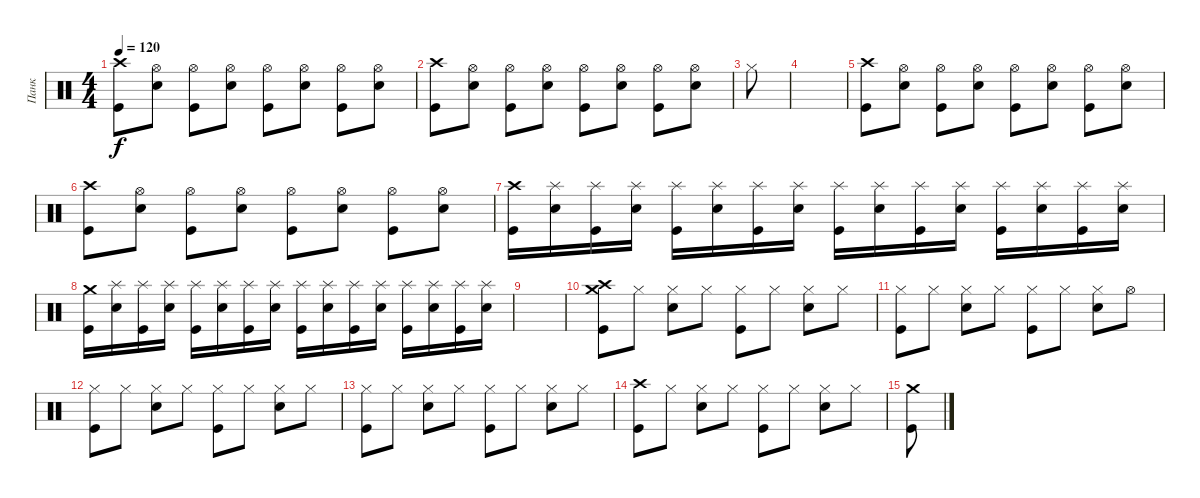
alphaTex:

\track ("Панк" "Панк") {instrument percussion}
\staff {score}
\articulation defaults
\ts (4 4)
\tempo 120
\clef neutral
\ks c
("Crash high (hit)" "Kick (hit)").8{dy f} ("Hi-Hat (open)" "Electric Snare (hit)").8 ("Hi-Hat (open)" "Kick (hit)").8 ("Hi-Hat (open)" "Electric Snare (hit)").8 ("Hi-Hat (open)" "Kick (hit)").8 ("Hi-Hat (open)" "Electric Snare (hit)").8 ("Hi-Hat (open)" "Kick (hit)").8 ("Hi-Hat (open)" "Electric Snare (hit)").8 |
("Crash high (hit)" "Kick (hit)").8 ("Hi-Hat (open)" "Electric Snare (hit)").8 ("Hi-Hat (open)" "Kick (hit)").8 ("Hi-Hat (open)" "Electric Snare (hit)").8 ("Hi-Hat (open)" "Kick (hit)").8 ("Hi-Hat (open)" "Electric Snare (hit)").8 ("Hi-Hat (open)" "Kick (hit)").8 ("Hi-Hat (open)" "Electric Snare (hit)").8 |
"Hi-Hat (closed)".8 |
|
("Crash high (hit)" "Kick (hit)").8 ("Hi-Hat (open)" "Electric Snare (hit)").8 ("Hi-Hat (open)" "Kick (hit)").8 ("Hi-Hat (open)" "Electric Snare (hit)").8 ("Hi-Hat (open)" "Kick (hit)").8 ("Hi-Hat (open)" "Electric Snare (hit)").8 ("Hi-Hat (open)" "Kick (hit)").8 ("Hi-Hat (open)" "Electric Snare (hit)").8 |
("Crash high (hit)" "Kick (hit)").8 ("Hi-Hat (open)" "Electric Snare (hit)").8 ("Hi-Hat (open)" "Kick (hit)").8 ("Hi-Hat (open)" "Electric Snare (hit)").8 ("Hi-Hat (open)" "Kick (hit)").8 ("Hi-Hat (open)" "Electric Snare (hit)").8 ("Hi-Hat (open)" "Kick (hit)").8 ("Hi-Hat (open)" "Electric Snare (hit)").8 |
("Crash high (hit)" "Kick (hit)").16 ("Splash (hit)" "Electric Snare (hit)").16 ("Splash (hit)" "Kick (hit)").16 ("Splash (hit)" "Electric Snare (hit)").16 ("Splash (hit)" "Kick (hit)").16 ("Splash (hit)" "Electric Snare (hit)").16 ("Splash (hit)" "Kick (hit)").16 ("Splash (hit)" "Electric Snare (hit)").16 ("Splash (hit)" "Kick (hit)").16 ("Splash (hit)" "Electric Snare (hit)").16 ("Splash (hit)" "Kick (hit)").16 ("Splash (hit)" "Electric Snare (hit)").16 ("Splash (hit)" "Kick (hit)").16 ("Splash (hit)" "Electric Snare (hit)").16 ("Splash (hit)" "Kick (hit)").16 ("Splash (hit)" "Electric Snare (hit)").16 |
("Crash medium (hit)" "Kick (hit)").16 ("Splash (hit)" "Electric Snare (hit)").16 ("Splash (hit)" "Kick (hit)").16 ("Splash (hit)" "Electric Snare (hit)").16 ("Splash (hit)" "Kick (hit)").16 ("Splash (hit)" "Electric Snare (hit)").16 ("Splash (hit)" "Kick (hit)").16 ("Splash (hit)" "Electric Snare (hit)").16 ("Splash (hit)" "Kick (hit)").16 ("Splash (hit)" "Electric Snare (hit)").16 ("Splash (hit)" "Kick (hit)").16 ("Splash (hit)" "Electric Snare (hit)").16 ("Splash (hit)" "Kick (hit)").16 ("Splash (hit)" "Electric Snare (hit)").16 ("Splash (hit)" "Kick (hit)").16 ("Splash (hit)" "Electric Snare (hit)").16 |
|
("Crash high (hit)" "Crash medium (hit)" "Kick (hit)").8 "Hi-Hat (closed)".8 ("Hi-Hat (closed)" "Electric Snare (hit)").8 "Hi-Hat (closed)".8 ("Hi-Hat (closed)" "Kick (hit)").8 "Hi-Hat (closed)".8 ("Hi-Hat (closed)" "Electric Snare (hit)").8 "Hi-Hat (closed)".8 |
("Hi-Hat (closed)" "Kick (hit)").8 "Hi-Hat (closed)".8 ("Hi-Hat (closed)" "Electric Snare (hit)").8 "Hi-Hat (closed)".8 ("Hi-Hat (closed)" "Kick (hit)").8 "Hi-Hat (closed)".8 ("Hi-Hat (closed)" "Electric Snare (hit)").8 "Hi-Hat (open)".8 |
("Hi-Hat (closed)" "Kick (hit)").8 "Hi-Hat (closed)".8 ("Hi-Hat (closed)" "Electric Snare (hit)").8 "Hi-Hat (closed)".8 ("Hi-Hat (closed)" "Kick (hit)").8 "Hi-Hat (closed)".8 ("Hi-Hat (closed)" "Electric Snare (hit)").8 "Hi-Hat (closed)".8 |
("Hi-Hat (closed)" "Kick (hit)").8 "Hi-Hat (closed)".8 ("Hi-Hat (closed)" "Electric Snare (hit)").8 "Hi-Hat (closed)".8 ("Hi-Hat (closed)" "Kick (hit)").8 "Hi-Hat (closed)".8 ("Hi-Hat (closed)" "Electric Snare (hit)").8 "Hi-Hat (closed)".8 |
("Crash high (hit)" "Kick (hit)").8 "Hi-Hat (closed)".8 ("Hi-Hat (closed)" "Electric Snare (hit)").8 "Hi-Hat (closed)".8 ("Hi-Hat (closed)" "Kick (hit)").8 "Hi-Hat (closed)".8 ("Hi-Hat (closed)" "Electric Snare (hit)").8 "Hi-Hat (closed)".8 |
("Crash medium (hit)" "Kick (hit)").8
